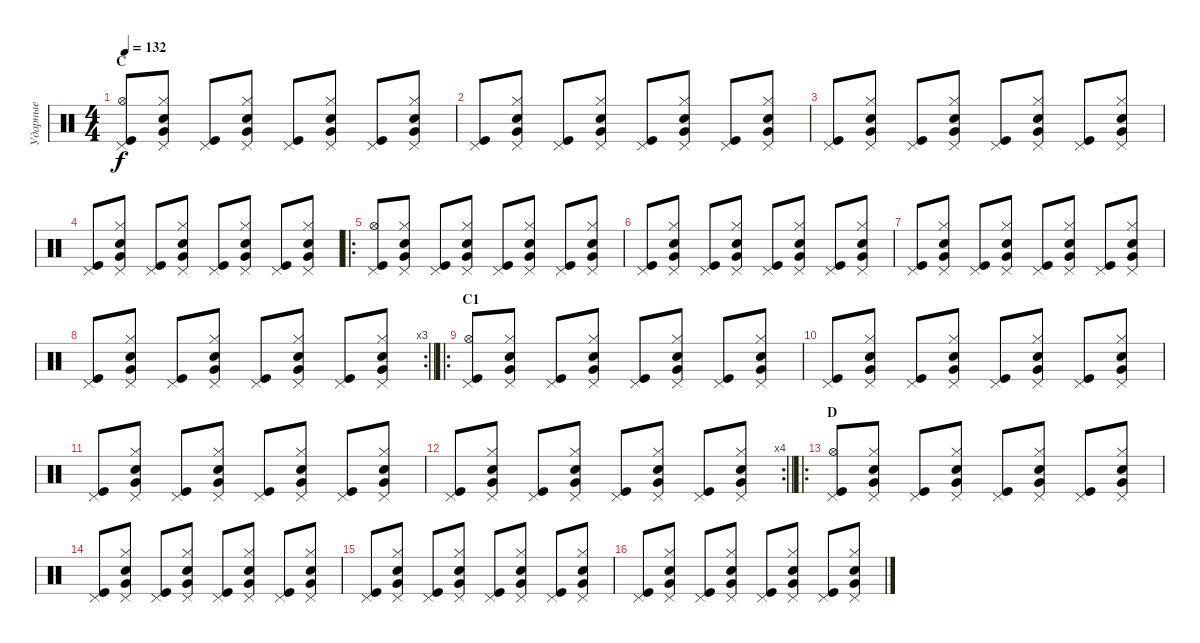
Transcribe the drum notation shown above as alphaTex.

\track ("Ударные" "Ударные") {instrument percussion}
\staff {score}
\articulation defaults
\ts (4 4)
\section ("" "C")
\tempo 132
\clef neutral
\ks c
("Pedal Hi-Hat (hit)" "Hi-Hat (open)" "Kick (hit)").8{dy f} ("Pedal Hi-Hat (hit)" "Hi-Hat (closed)" "Electric Snare (hit)" "Very Low Tom (hit)").8 ("Pedal Hi-Hat (hit)" "Kick (hit)").8 ("Pedal Hi-Hat (hit)" "Hi-Hat (closed)" "Electric Snare (hit)" "Very Low Tom (hit)").8 ("Pedal Hi-Hat (hit)" "Kick (hit)").8 ("Pedal Hi-Hat (hit)" "Hi-Hat (closed)" "Electric Snare (hit)" "Very Low Tom (hit)").8 ("Pedal Hi-Hat (hit)" "Kick (hit)").8 ("Pedal Hi-Hat (hit)" "Hi-Hat (closed)" "Electric Snare (hit)" "Very Low Tom (hit)").8 |
("Pedal Hi-Hat (hit)" "Kick (hit)").8 ("Pedal Hi-Hat (hit)" "Hi-Hat (closed)" "Electric Snare (hit)" "Very Low Tom (hit)").8 ("Pedal Hi-Hat (hit)" "Kick (hit)").8 ("Pedal Hi-Hat (hit)" "Hi-Hat (closed)" "Electric Snare (hit)" "Very Low Tom (hit)").8 ("Pedal Hi-Hat (hit)" "Kick (hit)").8 ("Pedal Hi-Hat (hit)" "Hi-Hat (closed)" "Electric Snare (hit)" "Very Low Tom (hit)").8 ("Pedal Hi-Hat (hit)" "Kick (hit)").8 ("Pedal Hi-Hat (hit)" "Hi-Hat (closed)" "Electric Snare (hit)" "Very Low Tom (hit)").8 |
("Pedal Hi-Hat (hit)" "Kick (hit)").8 ("Pedal Hi-Hat (hit)" "Hi-Hat (closed)" "Electric Snare (hit)" "Very Low Tom (hit)").8 ("Pedal Hi-Hat (hit)" "Kick (hit)").8 ("Pedal Hi-Hat (hit)" "Hi-Hat (closed)" "Electric Snare (hit)" "Very Low Tom (hit)").8 ("Pedal Hi-Hat (hit)" "Kick (hit)").8 ("Pedal Hi-Hat (hit)" "Hi-Hat (closed)" "Electric Snare (hit)" "Very Low Tom (hit)").8 ("Pedal Hi-Hat (hit)" "Kick (hit)").8 ("Pedal Hi-Hat (hit)" "Hi-Hat (closed)" "Electric Snare (hit)" "Very Low Tom (hit)").8 |
("Pedal Hi-Hat (hit)" "Kick (hit)").8 ("Pedal Hi-Hat (hit)" "Hi-Hat (closed)" "Electric Snare (hit)" "Very Low Tom (hit)").8 ("Pedal Hi-Hat (hit)" "Kick (hit)").8 ("Pedal Hi-Hat (hit)" "Hi-Hat (closed)" "Electric Snare (hit)" "Very Low Tom (hit)").8 ("Pedal Hi-Hat (hit)" "Kick (hit)").8 ("Pedal Hi-Hat (hit)" "Hi-Hat (closed)" "Electric Snare (hit)" "Very Low Tom (hit)").8 ("Pedal Hi-Hat (hit)" "Kick (hit)").8 ("Pedal Hi-Hat (hit)" "Hi-Hat (closed)" "Electric Snare (hit)" "Very Low Tom (hit)").8 |
\ro
("Pedal Hi-Hat (hit)" "Hi-Hat (open)" "Kick (hit)").8 ("Pedal Hi-Hat (hit)" "Hi-Hat (closed)" "Electric Snare (hit)" "Very Low Tom (hit)").8 ("Pedal Hi-Hat (hit)" "Kick (hit)").8 ("Pedal Hi-Hat (hit)" "Hi-Hat (closed)" "Electric Snare (hit)" "Very Low Tom (hit)").8 ("Pedal Hi-Hat (hit)" "Kick (hit)").8 ("Pedal Hi-Hat (hit)" "Hi-Hat (closed)" "Electric Snare (hit)" "Very Low Tom (hit)").8 ("Pedal Hi-Hat (hit)" "Kick (hit)").8 ("Pedal Hi-Hat (hit)" "Hi-Hat (closed)" "Electric Snare (hit)" "Very Low Tom (hit)").8 |
("Pedal Hi-Hat (hit)" "Kick (hit)").8 ("Pedal Hi-Hat (hit)" "Hi-Hat (closed)" "Electric Snare (hit)" "Very Low Tom (hit)").8 ("Pedal Hi-Hat (hit)" "Kick (hit)").8 ("Pedal Hi-Hat (hit)" "Hi-Hat (closed)" "Electric Snare (hit)" "Very Low Tom (hit)").8 ("Pedal Hi-Hat (hit)" "Kick (hit)").8 ("Pedal Hi-Hat (hit)" "Hi-Hat (closed)" "Electric Snare (hit)" "Very Low Tom (hit)").8 ("Pedal Hi-Hat (hit)" "Kick (hit)").8 ("Pedal Hi-Hat (hit)" "Hi-Hat (closed)" "Electric Snare (hit)" "Very Low Tom (hit)").8 |
("Pedal Hi-Hat (hit)" "Kick (hit)").8 ("Pedal Hi-Hat (hit)" "Hi-Hat (closed)" "Electric Snare (hit)" "Very Low Tom (hit)").8 ("Pedal Hi-Hat (hit)" "Kick (hit)").8 ("Pedal Hi-Hat (hit)" "Hi-Hat (closed)" "Electric Snare (hit)" "Very Low Tom (hit)").8 ("Pedal Hi-Hat (hit)" "Kick (hit)").8 ("Pedal Hi-Hat (hit)" "Hi-Hat (closed)" "Electric Snare (hit)" "Very Low Tom (hit)").8 ("Pedal Hi-Hat (hit)" "Kick (hit)").8 ("Pedal Hi-Hat (hit)" "Hi-Hat (closed)" "Electric Snare (hit)" "Very Low Tom (hit)").8 |
\rc 3
\barLineRight lightlight
("Pedal Hi-Hat (hit)" "Kick (hit)").8 ("Pedal Hi-Hat (hit)" "Hi-Hat (closed)" "Electric Snare (hit)" "Very Low Tom (hit)").8 ("Pedal Hi-Hat (hit)" "Kick (hit)").8 ("Pedal Hi-Hat (hit)" "Hi-Hat (closed)" "Electric Snare (hit)" "Very Low Tom (hit)").8 ("Pedal Hi-Hat (hit)" "Kick (hit)").8 ("Pedal Hi-Hat (hit)" "Hi-Hat (closed)" "Electric Snare (hit)" "Very Low Tom (hit)").8 ("Pedal Hi-Hat (hit)" "Kick (hit)").8 ("Pedal Hi-Hat (hit)" "Hi-Hat (closed)" "Electric Snare (hit)" "Very Low Tom (hit)").8 |
\ro
\section ("" "C1")
("Pedal Hi-Hat (hit)" "Hi-Hat (open)" "Kick (hit)").8 ("Pedal Hi-Hat (hit)" "Hi-Hat (closed)" "Electric Snare (hit)" "Very Low Tom (hit)").8 ("Pedal Hi-Hat (hit)" "Kick (hit)").8 ("Pedal Hi-Hat (hit)" "Hi-Hat (closed)" "Electric Snare (hit)" "Very Low Tom (hit)").8 ("Pedal Hi-Hat (hit)" "Kick (hit)").8 ("Pedal Hi-Hat (hit)" "Hi-Hat (closed)" "Electric Snare (hit)" "Very Low Tom (hit)").8 ("Pedal Hi-Hat (hit)" "Kick (hit)").8 ("Pedal Hi-Hat (hit)" "Hi-Hat (closed)" "Electric Snare (hit)" "Very Low Tom (hit)").8 |
("Pedal Hi-Hat (hit)" "Kick (hit)").8 ("Pedal Hi-Hat (hit)" "Hi-Hat (closed)" "Electric Snare (hit)" "Very Low Tom (hit)").8 ("Pedal Hi-Hat (hit)" "Kick (hit)").8 ("Pedal Hi-Hat (hit)" "Hi-Hat (closed)" "Electric Snare (hit)" "Very Low Tom (hit)").8 ("Pedal Hi-Hat (hit)" "Kick (hit)").8 ("Pedal Hi-Hat (hit)" "Hi-Hat (closed)" "Electric Snare (hit)" "Very Low Tom (hit)").8 ("Pedal Hi-Hat (hit)" "Kick (hit)").8 ("Pedal Hi-Hat (hit)" "Hi-Hat (closed)" "Electric Snare (hit)" "Very Low Tom (hit)").8 |
("Pedal Hi-Hat (hit)" "Kick (hit)").8 ("Pedal Hi-Hat (hit)" "Hi-Hat (closed)" "Electric Snare (hit)" "Very Low Tom (hit)").8 ("Pedal Hi-Hat (hit)" "Kick (hit)").8 ("Pedal Hi-Hat (hit)" "Hi-Hat (closed)" "Electric Snare (hit)" "Very Low Tom (hit)").8 ("Pedal Hi-Hat (hit)" "Kick (hit)").8 ("Pedal Hi-Hat (hit)" "Hi-Hat (closed)" "Electric Snare (hit)" "Very Low Tom (hit)").8 ("Pedal Hi-Hat (hit)" "Kick (hit)").8 ("Pedal Hi-Hat (hit)" "Hi-Hat (closed)" "Electric Snare (hit)" "Very Low Tom (hit)").8 |
\rc 4
\barLineRight lightlight
("Pedal Hi-Hat (hit)" "Kick (hit)").8 ("Pedal Hi-Hat (hit)" "Hi-Hat (closed)" "Electric Snare (hit)" "Very Low Tom (hit)").8 ("Pedal Hi-Hat (hit)" "Kick (hit)").8 ("Pedal Hi-Hat (hit)" "Hi-Hat (closed)" "Electric Snare (hit)" "Very Low Tom (hit)").8 ("Pedal Hi-Hat (hit)" "Kick (hit)").8 ("Pedal Hi-Hat (hit)" "Hi-Hat (closed)" "Electric Snare (hit)" "Very Low Tom (hit)").8 ("Pedal Hi-Hat (hit)" "Kick (hit)").8 ("Pedal Hi-Hat (hit)" "Hi-Hat (closed)" "Electric Snare (hit)" "Very Low Tom (hit)").8 |
\ro
\section ("" "D")
("Pedal Hi-Hat (hit)" "Hi-Hat (open)" "Kick (hit)").8 ("Pedal Hi-Hat (hit)" "Hi-Hat (closed)" "Electric Snare (hit)" "Very Low Tom (hit)").8 ("Pedal Hi-Hat (hit)" "Kick (hit)").8 ("Pedal Hi-Hat (hit)" "Hi-Hat (closed)" "Electric Snare (hit)" "Very Low Tom (hit)").8 ("Pedal Hi-Hat (hit)" "Kick (hit)").8 ("Pedal Hi-Hat (hit)" "Hi-Hat (closed)" "Electric Snare (hit)" "Very Low Tom (hit)").8 ("Pedal Hi-Hat (hit)" "Kick (hit)").8 ("Pedal Hi-Hat (hit)" "Hi-Hat (closed)" "Electric Snare (hit)" "Very Low Tom (hit)").8 |
("Pedal Hi-Hat (hit)" "Kick (hit)").8 ("Pedal Hi-Hat (hit)" "Hi-Hat (closed)" "Electric Snare (hit)" "Very Low Tom (hit)").8 ("Pedal Hi-Hat (hit)" "Kick (hit)").8 ("Pedal Hi-Hat (hit)" "Hi-Hat (closed)" "Electric Snare (hit)" "Very Low Tom (hit)").8 ("Pedal Hi-Hat (hit)" "Kick (hit)").8 ("Pedal Hi-Hat (hit)" "Hi-Hat (closed)" "Electric Snare (hit)" "Very Low Tom (hit)").8 ("Pedal Hi-Hat (hit)" "Kick (hit)").8 ("Pedal Hi-Hat (hit)" "Hi-Hat (closed)" "Electric Snare (hit)" "Very Low Tom (hit)").8 |
("Pedal Hi-Hat (hit)" "Kick (hit)").8 ("Pedal Hi-Hat (hit)" "Hi-Hat (closed)" "Electric Snare (hit)" "Very Low Tom (hit)").8 ("Pedal Hi-Hat (hit)" "Kick (hit)").8 ("Pedal Hi-Hat (hit)" "Hi-Hat (closed)" "Electric Snare (hit)" "Very Low Tom (hit)").8 ("Pedal Hi-Hat (hit)" "Kick (hit)").8 ("Pedal Hi-Hat (hit)" "Hi-Hat (closed)" "Electric Snare (hit)" "Very Low Tom (hit)").8 ("Pedal Hi-Hat (hit)" "Kick (hit)").8 ("Pedal Hi-Hat (hit)" "Hi-Hat (closed)" "Electric Snare (hit)" "Very Low Tom (hit)").8 |
("Pedal Hi-Hat (hit)" "Kick (hit)").8 ("Pedal Hi-Hat (hit)" "Hi-Hat (closed)" "Electric Snare (hit)" "Very Low Tom (hit)").8 ("Pedal Hi-Hat (hit)" "Kick (hit)").8 ("Pedal Hi-Hat (hit)" "Hi-Hat (closed)" "Electric Snare (hit)" "Very Low Tom (hit)").8 ("Pedal Hi-Hat (hit)" "Kick (hit)").8 ("Pedal Hi-Hat (hit)" "Hi-Hat (closed)" "Electric Snare (hit)" "Very Low Tom (hit)").8 ("Pedal Hi-Hat (hit)" "Kick (hit)").8 ("Pedal Hi-Hat (hit)" "Hi-Hat (closed)" "Electric Snare (hit)" "Very Low Tom (hit)").8
